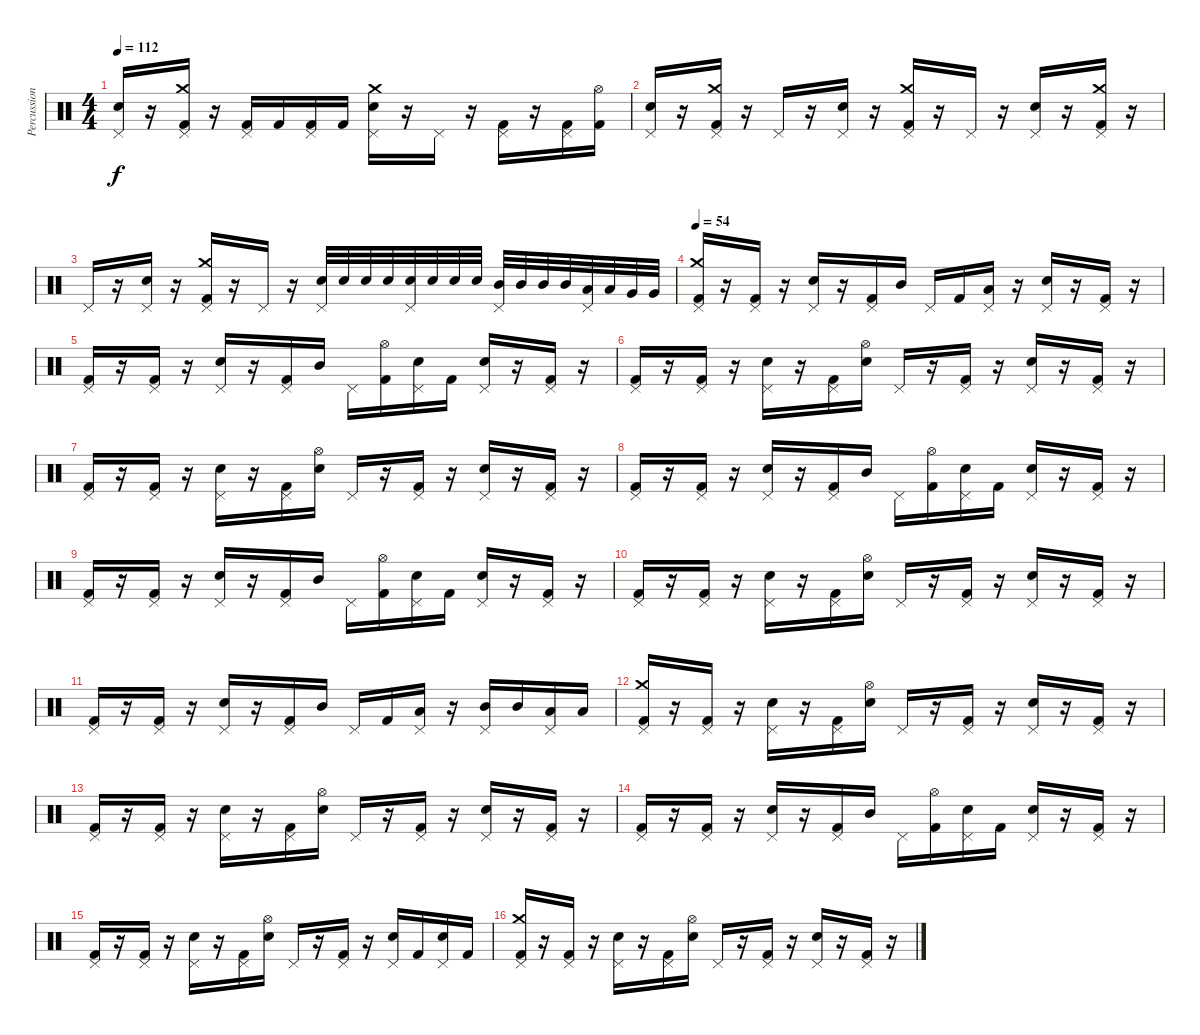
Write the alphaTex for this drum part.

\track ("Percussion" "Percussion") {instrument percussion}
\staff {score}
\articulation defaults
\ts (4 4)
\tempo 112
\clef neutral
\ks c
("Pedal Hi-Hat (hit)" "Snare (hit) 2").16{dy f} r.16 ("Crash medium (hit)" "Pedal Hi-Hat (hit)" "Kick (hit) 2").16 r.16 ("Pedal Hi-Hat (hit)" "Kick (hit) 2").16 "Kick (hit) 2".16 ("Pedal Hi-Hat (hit)" "Kick (hit) 2").16 "Kick (hit) 2".16 ("Crash medium (hit)" "Pedal Hi-Hat (hit)" "Snare (hit) 2").16 r.16 "Pedal Hi-Hat (hit)".16 r.16 ("Pedal Hi-Hat (hit)" "Kick (hit) 2").16 r.16 ("Pedal Hi-Hat (hit)" "Kick (hit) 2").16 ("Hi-Hat (open)" "Kick (hit) 2").16 |
("Pedal Hi-Hat (hit)" "Snare (hit) 2").16 r.16 ("Crash medium (hit)" "Pedal Hi-Hat (hit)" "Kick (hit) 2").16 r.16 "Pedal Hi-Hat (hit)".16 r.16 ("Pedal Hi-Hat (hit)" "Snare (hit) 2").16 r.16 ("Crash medium (hit)" "Pedal Hi-Hat (hit)" "Kick (hit) 2").16 r.16 "Pedal Hi-Hat (hit)".16 r.16 ("Pedal Hi-Hat (hit)" "Snare (hit) 2").16 r.16 ("Crash medium (hit)" "Pedal Hi-Hat (hit)" "Kick (hit) 2").16 r.16 |
"Pedal Hi-Hat (hit)".16 r.16 ("Pedal Hi-Hat (hit)" "Snare (hit) 2").16 r.16 ("Crash medium (hit)" "Pedal Hi-Hat (hit)" "Kick (hit) 2").16 r.16 "Pedal Hi-Hat (hit)".16 r.16 ("Pedal Hi-Hat (hit)" "Snare (hit) 2").32 "Snare (hit) 2".32 "Snare (hit) 2".32 "Snare (hit) 2".32 ("Pedal Hi-Hat (hit)" "Snare (hit) 2").32 "Snare (hit) 2".32 "Snare (hit) 2".32 "Snare (hit) 2".32 ("Pedal Hi-Hat (hit)" "Mid Tom (hit)").32 "Mid Tom (hit)".32 "Mid Tom (hit)".32 "Mid Tom (hit)".32 ("Pedal Hi-Hat (hit)" "Low Tom (hit)").32 "Low Tom (hit)".32 "Very Low Tom (hit)".32 "Very Low Tom (hit)".32 |
\tempo 54
("Crash medium (hit)" "Pedal Hi-Hat (hit)" "Kick (hit) 2").16{volume 12} r.16 ("Pedal Hi-Hat (hit)" "Kick (hit) 2").16 r.16 ("Pedal Hi-Hat (hit)" "Snare (hit) 2").16 r.16 ("Pedal Hi-Hat (hit)" "Kick (hit) 2").16 "Mid Tom (hit)".16 "Pedal Hi-Hat (hit)".16 "Kick (hit) 2".16 ("Pedal Hi-Hat (hit)" "Low Tom (hit)").16 r.16 ("Pedal Hi-Hat (hit)" "Snare (hit) 2").16 r.16 ("Pedal Hi-Hat (hit)" "Kick (hit) 2").16 r.16 |
("Pedal Hi-Hat (hit)" "Kick (hit) 2").16 r.16 ("Pedal Hi-Hat (hit)" "Kick (hit) 2").16 r.16 ("Pedal Hi-Hat (hit)" "Snare (hit) 2").16 r.16 ("Pedal Hi-Hat (hit)" "Kick (hit) 2").16 "Mid Tom (hit)".16 "Pedal Hi-Hat (hit)".16 ("Hi-Hat (open)" "Kick (hit) 2").16 ("Pedal Hi-Hat (hit)" "Snare (hit) 2").16 "Kick (hit) 2".16 ("Pedal Hi-Hat (hit)" "Snare (hit) 2").16 r.16 ("Pedal Hi-Hat (hit)" "Kick (hit) 2").16 r.16 |
("Pedal Hi-Hat (hit)" "Kick (hit) 2").16 r.16 ("Pedal Hi-Hat (hit)" "Kick (hit) 2").16 r.16 ("Pedal Hi-Hat (hit)" "Snare (hit) 2").16 r.16 ("Pedal Hi-Hat (hit)" "Kick (hit) 2").16 ("Hi-Hat (open)" "Snare (hit) 2").16 "Pedal Hi-Hat (hit)".16 r.16 ("Pedal Hi-Hat (hit)" "Kick (hit) 2").16 r.16 ("Pedal Hi-Hat (hit)" "Snare (hit) 2").16 r.16 ("Pedal Hi-Hat (hit)" "Kick (hit) 2").16 r.16 |
("Pedal Hi-Hat (hit)" "Kick (hit) 2").16 r.16 ("Pedal Hi-Hat (hit)" "Kick (hit) 2").16 r.16 ("Pedal Hi-Hat (hit)" "Snare (hit) 2").16 r.16 ("Pedal Hi-Hat (hit)" "Kick (hit) 2").16 ("Hi-Hat (open)" "Snare (hit) 2").16 "Pedal Hi-Hat (hit)".16 r.16 ("Pedal Hi-Hat (hit)" "Kick (hit) 2").16 r.16 ("Pedal Hi-Hat (hit)" "Snare (hit) 2").16 r.16 ("Pedal Hi-Hat (hit)" "Kick (hit) 2").16 r.16 |
("Pedal Hi-Hat (hit)" "Kick (hit) 2").16 r.16 ("Pedal Hi-Hat (hit)" "Kick (hit) 2").16 r.16 ("Pedal Hi-Hat (hit)" "Snare (hit) 2").16 r.16 ("Pedal Hi-Hat (hit)" "Kick (hit) 2").16 "Mid Tom (hit)".16 "Pedal Hi-Hat (hit)".16 ("Hi-Hat (open)" "Kick (hit) 2").16 ("Pedal Hi-Hat (hit)" "Snare (hit) 2").16 "Kick (hit) 2".16 ("Pedal Hi-Hat (hit)" "Snare (hit) 2").16 r.16 ("Pedal Hi-Hat (hit)" "Kick (hit) 2").16 r.16 |
("Pedal Hi-Hat (hit)" "Kick (hit) 2").16 r.16 ("Pedal Hi-Hat (hit)" "Kick (hit) 2").16 r.16 ("Pedal Hi-Hat (hit)" "Snare (hit) 2").16 r.16 ("Pedal Hi-Hat (hit)" "Kick (hit) 2").16 "Mid Tom (hit)".16 "Pedal Hi-Hat (hit)".16 ("Hi-Hat (open)" "Kick (hit) 2").16 ("Pedal Hi-Hat (hit)" "Snare (hit) 2").16 "Kick (hit) 2".16 ("Pedal Hi-Hat (hit)" "Snare (hit) 2").16 r.16 ("Pedal Hi-Hat (hit)" "Kick (hit) 2").16 r.16 |
("Pedal Hi-Hat (hit)" "Kick (hit) 2").16 r.16 ("Pedal Hi-Hat (hit)" "Kick (hit) 2").16 r.16 ("Pedal Hi-Hat (hit)" "Snare (hit) 2").16 r.16 ("Pedal Hi-Hat (hit)" "Kick (hit) 2").16 ("Hi-Hat (open)" "Snare (hit) 2").16 "Pedal Hi-Hat (hit)".16 r.16 ("Pedal Hi-Hat (hit)" "Kick (hit) 2").16 r.16 ("Pedal Hi-Hat (hit)" "Snare (hit) 2").16 r.16 ("Pedal Hi-Hat (hit)" "Kick (hit) 2").16 r.16 |
("Pedal Hi-Hat (hit)" "Kick (hit) 2").16 r.16 ("Pedal Hi-Hat (hit)" "Kick (hit) 2").16 r.16 ("Pedal Hi-Hat (hit)" "Snare (hit) 2").16 r.16 ("Pedal Hi-Hat (hit)" "Kick (hit) 2").16 "Mid Tom (hit)".16 "Pedal Hi-Hat (hit)".16 "Kick (hit) 2".16 ("Pedal Hi-Hat (hit)" "Low Tom (hit)").16 r.16 ("Pedal Hi-Hat (hit)" "Mid Tom (hit)").16 "Mid Tom (hit)".16 ("Pedal Hi-Hat (hit)" "Low Tom (hit)").16 "Low Tom (hit)".16 |
("Crash medium (hit)" "Pedal Hi-Hat (hit)" "Kick (hit) 2").16 r.16 ("Pedal Hi-Hat (hit)" "Kick (hit) 2").16 r.16 ("Pedal Hi-Hat (hit)" "Snare (hit) 2").16 r.16 ("Pedal Hi-Hat (hit)" "Kick (hit) 2").16 ("Hi-Hat (open)" "Snare (hit) 2").16 "Pedal Hi-Hat (hit)".16 r.16 ("Pedal Hi-Hat (hit)" "Kick (hit) 2").16 r.16 ("Pedal Hi-Hat (hit)" "Snare (hit) 2").16 r.16 ("Pedal Hi-Hat (hit)" "Kick (hit) 2").16 r.16 |
("Pedal Hi-Hat (hit)" "Kick (hit) 2").16 r.16 ("Pedal Hi-Hat (hit)" "Kick (hit) 2").16 r.16 ("Pedal Hi-Hat (hit)" "Snare (hit) 2").16 r.16 ("Pedal Hi-Hat (hit)" "Kick (hit) 2").16 ("Hi-Hat (open)" "Snare (hit) 2").16 "Pedal Hi-Hat (hit)".16 r.16 ("Pedal Hi-Hat (hit)" "Kick (hit) 2").16 r.16 ("Pedal Hi-Hat (hit)" "Snare (hit) 2").16 r.16 ("Pedal Hi-Hat (hit)" "Kick (hit) 2").16 r.16 |
("Pedal Hi-Hat (hit)" "Kick (hit) 2").16 r.16 ("Pedal Hi-Hat (hit)" "Kick (hit) 2").16 r.16 ("Pedal Hi-Hat (hit)" "Snare (hit) 2").16 r.16 ("Pedal Hi-Hat (hit)" "Kick (hit) 2").16 "Mid Tom (hit)".16 "Pedal Hi-Hat (hit)".16 ("Hi-Hat (open)" "Kick (hit) 2").16 ("Pedal Hi-Hat (hit)" "Snare (hit) 2").16 "Kick (hit) 2".16 ("Pedal Hi-Hat (hit)" "Snare (hit) 2").16 r.16 ("Pedal Hi-Hat (hit)" "Kick (hit) 2").16 r.16 |
("Pedal Hi-Hat (hit)" "Kick (hit) 2").16 r.16 ("Pedal Hi-Hat (hit)" "Kick (hit) 2").16 r.16 ("Pedal Hi-Hat (hit)" "Snare (hit) 2").16 r.16 ("Pedal Hi-Hat (hit)" "Kick (hit) 2").16 ("Hi-Hat (open)" "Snare (hit) 2").16 "Pedal Hi-Hat (hit)".16 r.16 ("Pedal Hi-Hat (hit)" "Kick (hit) 2").16 r.16 ("Pedal Hi-Hat (hit)" "Snare (hit) 2").16 "Kick (hit) 2".16 ("Pedal Hi-Hat (hit)" "Snare (hit) 2").16 "Kick (hit) 2".16 |
("Crash medium (hit)" "Pedal Hi-Hat (hit)" "Kick (hit) 2").16 r.16 ("Pedal Hi-Hat (hit)" "Kick (hit) 2").16 r.16 ("Pedal Hi-Hat (hit)" "Snare (hit) 2").16 r.16 ("Pedal Hi-Hat (hit)" "Kick (hit) 2").16 ("Hi-Hat (open)" "Snare (hit) 2").16 "Pedal Hi-Hat (hit)".16 r.16 ("Pedal Hi-Hat (hit)" "Kick (hit) 2").16 r.16 ("Pedal Hi-Hat (hit)" "Snare (hit) 2").16 r.16 ("Pedal Hi-Hat (hit)" "Kick (hit) 2").16 r.16
